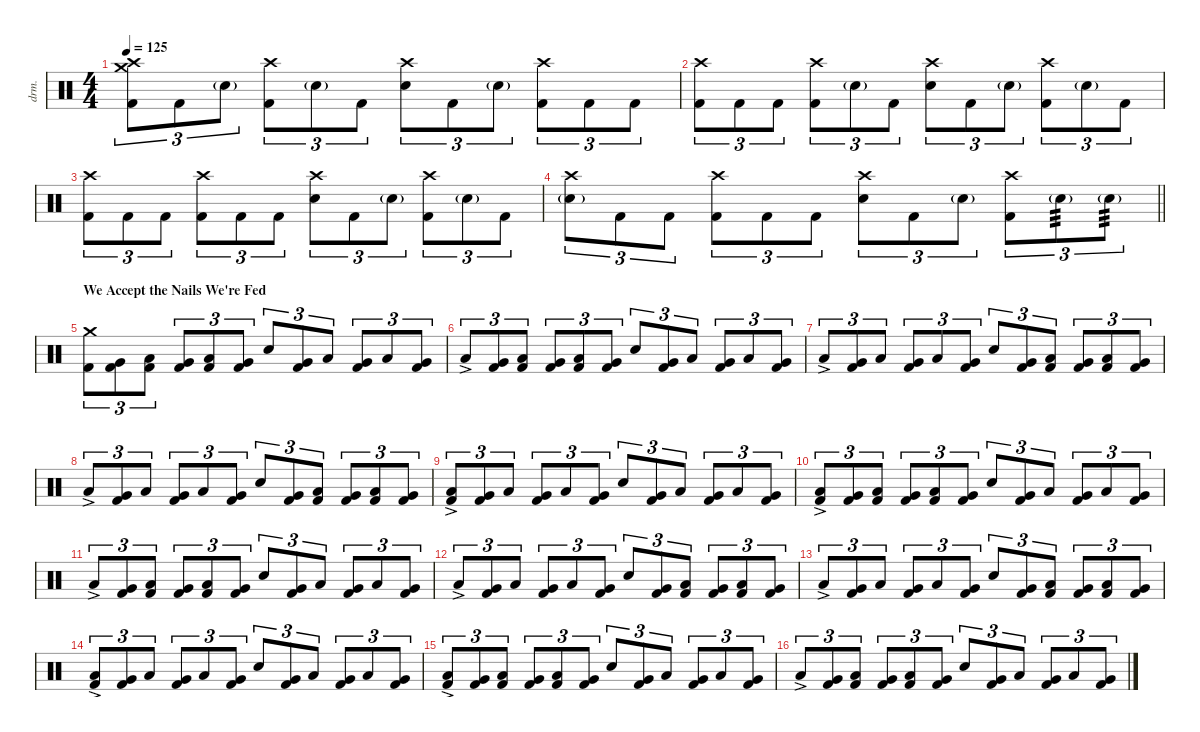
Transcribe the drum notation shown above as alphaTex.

\defaultSystemsLayout 4
\hideDynamics
\bracketExtendMode nobrackets
\track ("DRUMS (Thomas Haake)" "drm.") {instrument percussion}
\staff {score}
\articulation defaults
\ts (4 4)
\tempo 125
\clef neutral
\ks c
("Crash high (hit)" "Crash medium (hit)" "Kick (hit) 2").8{tu (3 2) dy f} "Kick (hit) 2".8{tu (3 2)} "Snare (hit) 2"{g}.8{tu (3 2) dy p} ("Crash high (hit)" "Kick (hit) 2").8{tu (3 2) dy f} "Snare (hit) 2"{g}.8{tu (3 2) dy p} "Kick (hit) 2".8{tu (3 2) dy f} ("Crash high (hit)" "Snare (hit) 2").8{tu (3 2)} "Kick (hit) 2".8{tu (3 2)} "Snare (hit) 2"{g}.8{tu (3 2) dy p} ("Crash high (hit)" "Kick (hit) 2").8{tu (3 2) dy f} "Kick (hit) 2".8{tu (3 2)} "Kick (hit) 2".8{tu (3 2)} |
("Crash high (hit)" "Kick (hit) 2").8{tu (3 2)} "Kick (hit) 2".8{tu (3 2)} "Kick (hit) 2".8{tu (3 2)} ("Crash high (hit)" "Kick (hit) 2").8{tu (3 2)} "Snare (hit) 2"{g}.8{tu (3 2) dy p} "Kick (hit) 2".8{tu (3 2) dy f} ("Crash high (hit)" "Snare (hit) 2").8{tu (3 2)} "Kick (hit) 2".8{tu (3 2)} "Snare (hit) 2"{g}.8{tu (3 2) dy p} ("Crash high (hit)" "Kick (hit) 2").8{tu (3 2) dy f} "Snare (hit) 2"{g}.8{tu (3 2) dy p} "Kick (hit) 2".8{tu (3 2) dy f} |
("Crash high (hit)" "Kick (hit) 2").8{tu (3 2)} "Kick (hit) 2".8{tu (3 2)} "Kick (hit) 2".8{tu (3 2)} ("Crash high (hit)" "Kick (hit) 2").8{tu (3 2)} "Kick (hit) 2".8{tu (3 2)} "Kick (hit) 2".8{tu (3 2)} ("Crash high (hit)" "Snare (hit) 2").8{tu (3 2)} "Kick (hit) 2".8{tu (3 2)} "Snare (hit) 2"{g}.8{tu (3 2) dy p} ("Crash high (hit)" "Kick (hit) 2").8{tu (3 2) dy f} "Snare (hit) 2"{g}.8{tu (3 2) dy p} "Kick (hit) 2".8{tu (3 2) dy f} |
\barLineRight lightlight
("Crash high (hit)" "Snare (hit) 2"{g}).8{tu (3 2)} "Kick (hit) 2".8{tu (3 2)} "Kick (hit) 2".8{tu (3 2)} ("Crash high (hit)" "Kick (hit) 2").8{tu (3 2)} "Kick (hit) 2".8{tu (3 2)} "Kick (hit) 2".8{tu (3 2)} ("Crash high (hit)" "Snare (hit) 2").8{tu (3 2)} "Kick (hit) 2".8{tu (3 2)} "Snare (hit) 2"{g}.8{tu (3 2) dy p} ("Crash high (hit)" "Kick (hit) 2").8{tu (3 2) dy f} "Snare (hit) 2"{g}.8{tu (3 2) tp 3 dy p} "Snare (hit) 2"{g}.8{tu (3 2) tp 3 dy mp} |
\section ("" "We Accept the Nails We're Fed")
("Crash medium (hit)" "Kick (hit) 2").8{tu (3 2) dy f} ("Very Low Tom (hit)" "Kick (hit) 2").8{tu (3 2) dy mf} ("Low Floor Tom (hit)" "Kick (hit) 2").8{tu (3 2) dy mp} ("Very Low Tom (hit)" "Kick (hit) 2").8{tu (3 2)} ("Low Floor Tom (hit)" "Kick (hit) 2").8{tu (3 2) dy mf} ("Very Low Tom (hit)" "Kick (hit) 2").8{tu (3 2)} "Snare (hit) 2".8{tu (3 2) dy f} ("Very Low Tom (hit)" "Kick (hit) 2").8{tu (3 2) dy mp} "Low Floor Tom (hit)".8{tu (3 2) dy mf} ("Very Low Tom (hit)" "Kick (hit) 2").8{tu (3 2)} "Low Floor Tom (hit)".8{tu (3 2) dy mp} ("Very Low Tom (hit)" "Kick (hit) 2").8{tu (3 2)} |
"Low Floor Tom (hit)"{ac}.8{tu (3 2) dy mf} ("Very Low Tom (hit)" "Kick (hit) 2").8{tu (3 2)} ("Low Floor Tom (hit)" "Kick (hit) 2").8{tu (3 2) dy mp} ("Very Low Tom (hit)" "Kick (hit) 2").8{tu (3 2)} ("Low Floor Tom (hit)" "Kick (hit) 2").8{tu (3 2) dy mf} ("Very Low Tom (hit)" "Kick (hit) 2").8{tu (3 2)} "Snare (hit) 2".8{tu (3 2) dy f} ("Very Low Tom (hit)" "Kick (hit) 2").8{tu (3 2) dy mp} "Low Floor Tom (hit)".8{tu (3 2) dy mf} ("Very Low Tom (hit)" "Kick (hit) 2").8{tu (3 2)} "Low Floor Tom (hit)".8{tu (3 2) dy mp} ("Very Low Tom (hit)" "Kick (hit) 2").8{tu (3 2)} |
"Low Floor Tom (hit)"{ac}.8{tu (3 2) dy mf} ("Very Low Tom (hit)" "Kick (hit) 2").8{tu (3 2)} "Low Floor Tom (hit)".8{tu (3 2) dy mp} ("Very Low Tom (hit)" "Kick (hit) 2").8{tu (3 2)} "Low Floor Tom (hit)".8{tu (3 2) dy mf} ("Very Low Tom (hit)" "Kick (hit) 2").8{tu (3 2)} "Snare (hit) 2".8{tu (3 2) dy f} ("Very Low Tom (hit)" "Kick (hit) 2").8{tu (3 2) dy mp} ("Low Floor Tom (hit)" "Kick (hit) 2").8{tu (3 2) dy mf} ("Very Low Tom (hit)" "Kick (hit) 2").8{tu (3 2)} ("Low Floor Tom (hit)" "Kick (hit) 2").8{tu (3 2) dy mp} ("Very Low Tom (hit)" "Kick (hit) 2").8{tu (3 2)} |
"Low Floor Tom (hit)"{ac}.8{tu (3 2) dy mf} ("Very Low Tom (hit)" "Kick (hit) 2").8{tu (3 2)} "Low Floor Tom (hit)".8{tu (3 2) dy mp} ("Very Low Tom (hit)" "Kick (hit) 2").8{tu (3 2)} "Low Floor Tom (hit)".8{tu (3 2) dy mf} ("Very Low Tom (hit)" "Kick (hit) 2").8{tu (3 2)} "Snare (hit) 2".8{tu (3 2) dy f} ("Very Low Tom (hit)" "Kick (hit) 2").8{tu (3 2) dy mp} ("Low Floor Tom (hit)" "Kick (hit) 2").8{tu (3 2) dy mf} ("Very Low Tom (hit)" "Kick (hit) 2").8{tu (3 2)} ("Low Floor Tom (hit)" "Kick (hit) 2").8{tu (3 2) dy mp} ("Very Low Tom (hit)" "Kick (hit) 2").8{tu (3 2)} |
("Low Floor Tom (hit)"{ac} "Kick (hit) 2").8{tu (3 2) dy f} ("Very Low Tom (hit)" "Kick (hit) 2").8{tu (3 2) dy mf} "Low Floor Tom (hit)".8{tu (3 2) dy mp} ("Very Low Tom (hit)" "Kick (hit) 2").8{tu (3 2)} "Low Floor Tom (hit)".8{tu (3 2) dy mf} ("Very Low Tom (hit)" "Kick (hit) 2").8{tu (3 2)} "Snare (hit) 2".8{tu (3 2) dy f} ("Very Low Tom (hit)" "Kick (hit) 2").8{tu (3 2) dy mp} "Low Floor Tom (hit)".8{tu (3 2) dy mf} ("Very Low Tom (hit)" "Kick (hit) 2").8{tu (3 2)} "Low Floor Tom (hit)".8{tu (3 2) dy mp} ("Very Low Tom (hit)" "Kick (hit) 2").8{tu (3 2)} |
("Low Floor Tom (hit)"{ac} "Kick (hit) 2").8{tu (3 2) dy f} ("Very Low Tom (hit)" "Kick (hit) 2").8{tu (3 2) dy mf} ("Low Floor Tom (hit)" "Kick (hit) 2").8{tu (3 2) dy mp} ("Very Low Tom (hit)" "Kick (hit) 2").8{tu (3 2)} ("Low Floor Tom (hit)" "Kick (hit) 2").8{tu (3 2) dy mf} ("Very Low Tom (hit)" "Kick (hit) 2").8{tu (3 2)} "Snare (hit) 2".8{tu (3 2) dy f} ("Very Low Tom (hit)" "Kick (hit) 2").8{tu (3 2) dy mp} "Low Floor Tom (hit)".8{tu (3 2) dy mf} ("Very Low Tom (hit)" "Kick (hit) 2").8{tu (3 2)} "Low Floor Tom (hit)".8{tu (3 2) dy mp} ("Very Low Tom (hit)" "Kick (hit) 2").8{tu (3 2)} |
"Low Floor Tom (hit)"{ac}.8{tu (3 2) dy mf} ("Very Low Tom (hit)" "Kick (hit) 2").8{tu (3 2)} ("Low Floor Tom (hit)" "Kick (hit) 2").8{tu (3 2) dy mp} ("Very Low Tom (hit)" "Kick (hit) 2").8{tu (3 2)} ("Low Floor Tom (hit)" "Kick (hit) 2").8{tu (3 2) dy mf} ("Very Low Tom (hit)" "Kick (hit) 2").8{tu (3 2)} "Snare (hit) 2".8{tu (3 2) dy f} ("Very Low Tom (hit)" "Kick (hit) 2").8{tu (3 2) dy mp} "Low Floor Tom (hit)".8{tu (3 2) dy mf} ("Very Low Tom (hit)" "Kick (hit) 2").8{tu (3 2)} "Low Floor Tom (hit)".8{tu (3 2) dy mp} ("Very Low Tom (hit)" "Kick (hit) 2").8{tu (3 2)} |
"Low Floor Tom (hit)"{ac}.8{tu (3 2) dy mf} ("Very Low Tom (hit)" "Kick (hit) 2").8{tu (3 2)} "Low Floor Tom (hit)".8{tu (3 2) dy mp} ("Very Low Tom (hit)" "Kick (hit) 2").8{tu (3 2)} "Low Floor Tom (hit)".8{tu (3 2) dy mf} ("Very Low Tom (hit)" "Kick (hit) 2").8{tu (3 2)} "Snare (hit) 2".8{tu (3 2) dy f} ("Very Low Tom (hit)" "Kick (hit) 2").8{tu (3 2) dy mp} ("Low Floor Tom (hit)" "Kick (hit) 2").8{tu (3 2) dy mf} ("Very Low Tom (hit)" "Kick (hit) 2").8{tu (3 2)} ("Low Floor Tom (hit)" "Kick (hit) 2").8{tu (3 2) dy mp} ("Very Low Tom (hit)" "Kick (hit) 2").8{tu (3 2)} |
"Low Floor Tom (hit)"{ac}.8{tu (3 2) dy mf} ("Very Low Tom (hit)" "Kick (hit) 2").8{tu (3 2)} "Low Floor Tom (hit)".8{tu (3 2) dy mp} ("Very Low Tom (hit)" "Kick (hit) 2").8{tu (3 2)} "Low Floor Tom (hit)".8{tu (3 2) dy mf} ("Very Low Tom (hit)" "Kick (hit) 2").8{tu (3 2)} "Snare (hit) 2".8{tu (3 2) dy f} ("Very Low Tom (hit)" "Kick (hit) 2").8{tu (3 2) dy mp} ("Low Floor Tom (hit)" "Kick (hit) 2").8{tu (3 2) dy mf} ("Very Low Tom (hit)" "Kick (hit) 2").8{tu (3 2)} ("Low Floor Tom (hit)" "Kick (hit) 2").8{tu (3 2) dy mp} ("Very Low Tom (hit)" "Kick (hit) 2").8{tu (3 2)} |
("Low Floor Tom (hit)"{ac} "Kick (hit) 2").8{tu (3 2) dy f} ("Very Low Tom (hit)" "Kick (hit) 2").8{tu (3 2) dy mf} "Low Floor Tom (hit)".8{tu (3 2) dy mp} ("Very Low Tom (hit)" "Kick (hit) 2").8{tu (3 2)} "Low Floor Tom (hit)".8{tu (3 2) dy mf} ("Very Low Tom (hit)" "Kick (hit) 2").8{tu (3 2)} "Snare (hit) 2".8{tu (3 2) dy f} ("Very Low Tom (hit)" "Kick (hit) 2").8{tu (3 2) dy mp} "Low Floor Tom (hit)".8{tu (3 2) dy mf} ("Very Low Tom (hit)" "Kick (hit) 2").8{tu (3 2)} "Low Floor Tom (hit)".8{tu (3 2) dy mp} ("Very Low Tom (hit)" "Kick (hit) 2").8{tu (3 2)} |
("Low Floor Tom (hit)"{ac} "Kick (hit) 2").8{tu (3 2) dy f} ("Very Low Tom (hit)" "Kick (hit) 2").8{tu (3 2) dy mf} ("Low Floor Tom (hit)" "Kick (hit) 2").8{tu (3 2) dy mp} ("Very Low Tom (hit)" "Kick (hit) 2").8{tu (3 2)} ("Low Floor Tom (hit)" "Kick (hit) 2").8{tu (3 2) dy mf} ("Very Low Tom (hit)" "Kick (hit) 2").8{tu (3 2)} "Snare (hit) 2".8{tu (3 2) dy f} ("Very Low Tom (hit)" "Kick (hit) 2").8{tu (3 2) dy mp} "Low Floor Tom (hit)".8{tu (3 2) dy mf} ("Very Low Tom (hit)" "Kick (hit) 2").8{tu (3 2)} "Low Floor Tom (hit)".8{tu (3 2) dy mp} ("Very Low Tom (hit)" "Kick (hit) 2").8{tu (3 2)} |
"Low Floor Tom (hit)"{ac}.8{tu (3 2) dy mf} ("Very Low Tom (hit)" "Kick (hit) 2").8{tu (3 2)} ("Low Floor Tom (hit)" "Kick (hit) 2").8{tu (3 2) dy mp} ("Very Low Tom (hit)" "Kick (hit) 2").8{tu (3 2)} ("Low Floor Tom (hit)" "Kick (hit) 2").8{tu (3 2) dy mf} ("Very Low Tom (hit)" "Kick (hit) 2").8{tu (3 2)} "Snare (hit) 2".8{tu (3 2) dy f} ("Very Low Tom (hit)" "Kick (hit) 2").8{tu (3 2) dy mp} "Low Floor Tom (hit)".8{tu (3 2) dy mf} ("Very Low Tom (hit)" "Kick (hit) 2").8{tu (3 2)} "Low Floor Tom (hit)".8{tu (3 2) dy mp} ("Very Low Tom (hit)" "Kick (hit) 2").8{tu (3 2)}
